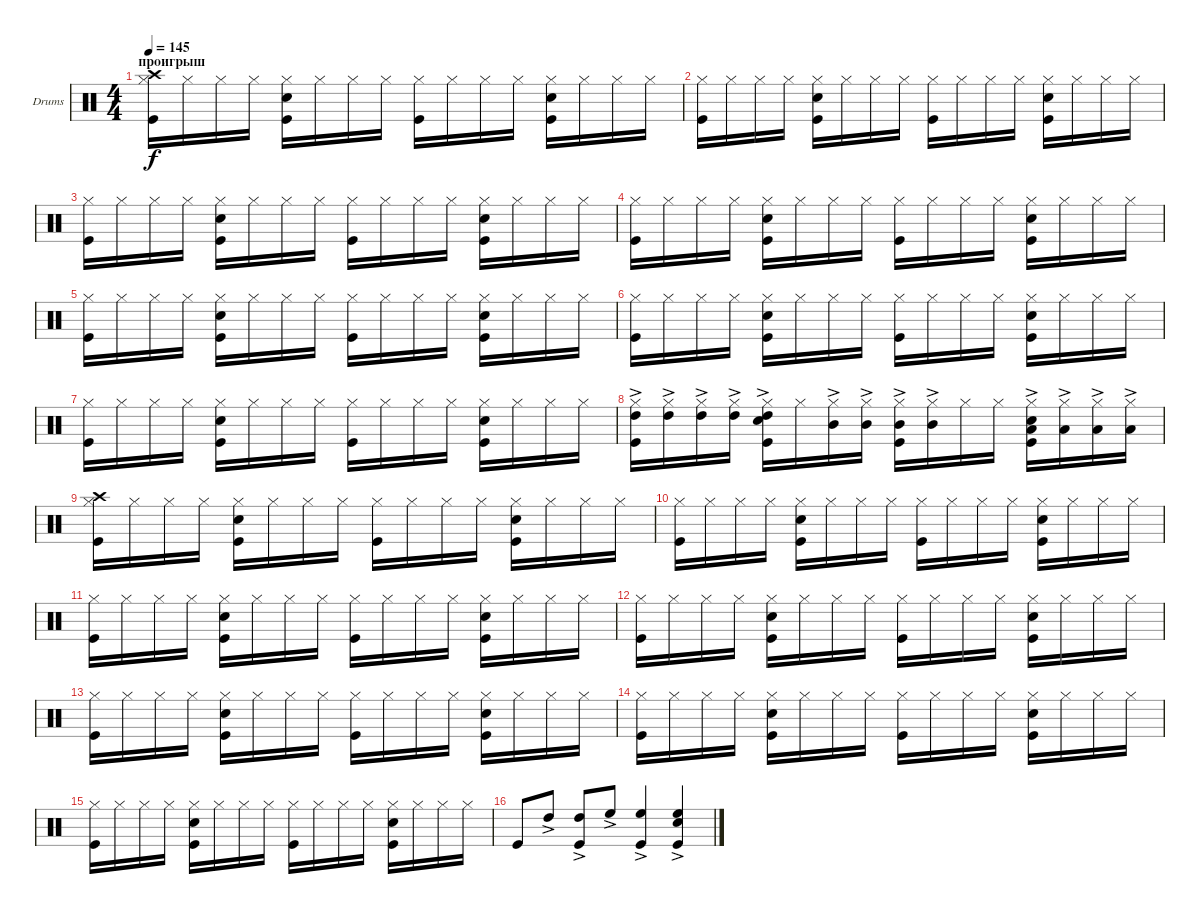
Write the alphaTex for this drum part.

\defaultSystemsLayout 4
\bracketExtendMode groupsimilarinstruments
\firstSystemTrackNameOrientation horizontal
\otherSystemsTrackNameOrientation horizontal
\track ("Drumkit" "Drums") {instrument percussion}
\staff {score}
\articulation defaults
\ts (4 4)
\section ("" "проигрыш")
\tempo 145
\clef neutral
\ks c
("Hi-Hat (closed)" "Kick (hit)" "Crash high (hit)").16{dy f} "Hi-Hat (closed)".16 "Hi-Hat (closed)".16 "Hi-Hat (closed)".16 ("Hi-Hat (closed)" "Kick (hit)" "Snare (hit) 2").16 "Hi-Hat (closed)".16 "Hi-Hat (closed)".16 "Hi-Hat (closed)".16 ("Hi-Hat (closed)" "Kick (hit)").16 "Hi-Hat (closed)".16 "Hi-Hat (closed)".16 "Hi-Hat (closed)".16 ("Hi-Hat (closed)" "Kick (hit)" "Snare (hit) 2").16 "Hi-Hat (closed)".16 "Hi-Hat (closed)".16 "Hi-Hat (closed)".16 |
("Hi-Hat (closed)" "Kick (hit)").16 "Hi-Hat (closed)".16 "Hi-Hat (closed)".16 "Hi-Hat (closed)".16 ("Hi-Hat (closed)" "Kick (hit)" "Snare (hit) 2").16 "Hi-Hat (closed)".16 "Hi-Hat (closed)".16 "Hi-Hat (closed)".16 ("Hi-Hat (closed)" "Kick (hit)").16 "Hi-Hat (closed)".16 "Hi-Hat (closed)".16 "Hi-Hat (closed)".16 ("Hi-Hat (closed)" "Kick (hit)" "Snare (hit) 2").16 "Hi-Hat (closed)".16 "Hi-Hat (closed)".16 "Hi-Hat (closed)".16 |
("Hi-Hat (closed)" "Kick (hit)").16 "Hi-Hat (closed)".16 "Hi-Hat (closed)".16 "Hi-Hat (closed)".16 ("Hi-Hat (closed)" "Kick (hit)" "Snare (hit) 2").16 "Hi-Hat (closed)".16 "Hi-Hat (closed)".16 "Hi-Hat (closed)".16 ("Hi-Hat (closed)" "Kick (hit)").16 "Hi-Hat (closed)".16 "Hi-Hat (closed)".16 "Hi-Hat (closed)".16 ("Hi-Hat (closed)" "Kick (hit)" "Snare (hit) 2").16 "Hi-Hat (closed)".16 "Hi-Hat (closed)".16 "Hi-Hat (closed)".16 |
("Hi-Hat (closed)" "Kick (hit)").16 "Hi-Hat (closed)".16 "Hi-Hat (closed)".16 "Hi-Hat (closed)".16 ("Hi-Hat (closed)" "Kick (hit)" "Snare (hit) 2").16 "Hi-Hat (closed)".16 "Hi-Hat (closed)".16 "Hi-Hat (closed)".16 ("Hi-Hat (closed)" "Kick (hit)").16 "Hi-Hat (closed)".16 "Hi-Hat (closed)".16 "Hi-Hat (closed)".16 ("Hi-Hat (closed)" "Kick (hit)" "Snare (hit) 2").16 "Hi-Hat (closed)".16 "Hi-Hat (closed)".16 "Hi-Hat (closed)".16 |
("Hi-Hat (closed)" "Kick (hit)").16 "Hi-Hat (closed)".16 "Hi-Hat (closed)".16 "Hi-Hat (closed)".16 ("Hi-Hat (closed)" "Kick (hit)" "Snare (hit) 2").16 "Hi-Hat (closed)".16 "Hi-Hat (closed)".16 "Hi-Hat (closed)".16 ("Hi-Hat (closed)" "Kick (hit)").16 "Hi-Hat (closed)".16 "Hi-Hat (closed)".16 "Hi-Hat (closed)".16 ("Hi-Hat (closed)" "Kick (hit)" "Snare (hit) 2").16 "Hi-Hat (closed)".16 "Hi-Hat (closed)".16 "Hi-Hat (closed)".16 |
("Hi-Hat (closed)" "Kick (hit)").16 "Hi-Hat (closed)".16 "Hi-Hat (closed)".16 "Hi-Hat (closed)".16 ("Hi-Hat (closed)" "Kick (hit)" "Snare (hit) 2").16 "Hi-Hat (closed)".16 "Hi-Hat (closed)".16 "Hi-Hat (closed)".16 ("Hi-Hat (closed)" "Kick (hit)").16 "Hi-Hat (closed)".16 "Hi-Hat (closed)".16 "Hi-Hat (closed)".16 ("Hi-Hat (closed)" "Kick (hit)" "Snare (hit) 2").16 "Hi-Hat (closed)".16 "Hi-Hat (closed)".16 "Hi-Hat (closed)".16 |
("Hi-Hat (closed)" "Kick (hit)").16 "Hi-Hat (closed)".16 "Hi-Hat (closed)".16 "Hi-Hat (closed)".16 ("Hi-Hat (closed)" "Kick (hit)" "Snare (hit) 2").16 "Hi-Hat (closed)".16 "Hi-Hat (closed)".16 "Hi-Hat (closed)".16 ("Hi-Hat (closed)" "Kick (hit)").16 "Hi-Hat (closed)".16 "Hi-Hat (closed)".16 "Hi-Hat (closed)".16 ("Hi-Hat (closed)" "Kick (hit)" "Snare (hit) 2").16 "Hi-Hat (closed)".16 "Hi-Hat (closed)".16 "Hi-Hat (closed)".16 |
("Hi-Hat (closed)" "Kick (hit)" "High Tom (hit)"{ac}).16 ("Hi-Hat (closed)" "High Tom (hit)"{ac}).16 ("Hi-Hat (closed)" "High Tom (hit)"{ac}).16 ("Hi-Hat (closed)" "High Tom (hit)"{ac}).16 ("Hi-Hat (closed)" "Kick (hit)" "Snare (hit) 2" "High Tom (hit)"{ac}).16 "Hi-Hat (closed)".16 ("Hi-Hat (closed)" "Mid Tom (hit)"{ac}).16 ("Hi-Hat (closed)" "Mid Tom (hit)"{ac}).16 ("Hi-Hat (closed)" "Kick (hit)" "Mid Tom (hit)"{ac}).16 ("Hi-Hat (closed)" "Mid Tom (hit)"{ac}).16 "Hi-Hat (closed)".16 "Hi-Hat (closed)".16 ("Hi-Hat (closed)" "Kick (hit)" "Snare (hit) 2" "Low Tom (hit)"{ac}).16 ("Hi-Hat (closed)" "Low Tom (hit)"{ac}).16 ("Hi-Hat (closed)" "Low Tom (hit)"{ac}).16 ("Hi-Hat (closed)" "Low Tom (hit)"{ac}).16 |
("Hi-Hat (closed)" "Kick (hit)" "Crash high (hit)").16 "Hi-Hat (closed)".16 "Hi-Hat (closed)".16 "Hi-Hat (closed)".16 ("Hi-Hat (closed)" "Kick (hit)" "Snare (hit) 2").16 "Hi-Hat (closed)".16 "Hi-Hat (closed)".16 "Hi-Hat (closed)".16 ("Hi-Hat (closed)" "Kick (hit)").16 "Hi-Hat (closed)".16 "Hi-Hat (closed)".16 "Hi-Hat (closed)".16 ("Hi-Hat (closed)" "Kick (hit)" "Snare (hit) 2").16 "Hi-Hat (closed)".16 "Hi-Hat (closed)".16 "Hi-Hat (closed)".16 |
("Hi-Hat (closed)" "Kick (hit)").16 "Hi-Hat (closed)".16 "Hi-Hat (closed)".16 "Hi-Hat (closed)".16 ("Hi-Hat (closed)" "Kick (hit)" "Snare (hit) 2").16 "Hi-Hat (closed)".16 "Hi-Hat (closed)".16 "Hi-Hat (closed)".16 ("Hi-Hat (closed)" "Kick (hit)").16 "Hi-Hat (closed)".16 "Hi-Hat (closed)".16 "Hi-Hat (closed)".16 ("Hi-Hat (closed)" "Kick (hit)" "Snare (hit) 2").16 "Hi-Hat (closed)".16 "Hi-Hat (closed)".16 "Hi-Hat (closed)".16 |
("Hi-Hat (closed)" "Kick (hit)").16 "Hi-Hat (closed)".16 "Hi-Hat (closed)".16 "Hi-Hat (closed)".16 ("Hi-Hat (closed)" "Kick (hit)" "Snare (hit) 2").16 "Hi-Hat (closed)".16 "Hi-Hat (closed)".16 "Hi-Hat (closed)".16 ("Hi-Hat (closed)" "Kick (hit)").16 "Hi-Hat (closed)".16 "Hi-Hat (closed)".16 "Hi-Hat (closed)".16 ("Hi-Hat (closed)" "Kick (hit)" "Snare (hit) 2").16 "Hi-Hat (closed)".16 "Hi-Hat (closed)".16 "Hi-Hat (closed)".16 |
("Hi-Hat (closed)" "Kick (hit)").16 "Hi-Hat (closed)".16 "Hi-Hat (closed)".16 "Hi-Hat (closed)".16 ("Hi-Hat (closed)" "Kick (hit)" "Snare (hit) 2").16 "Hi-Hat (closed)".16 "Hi-Hat (closed)".16 "Hi-Hat (closed)".16 ("Hi-Hat (closed)" "Kick (hit)").16 "Hi-Hat (closed)".16 "Hi-Hat (closed)".16 "Hi-Hat (closed)".16 ("Hi-Hat (closed)" "Kick (hit)" "Snare (hit) 2").16 "Hi-Hat (closed)".16 "Hi-Hat (closed)".16 "Hi-Hat (closed)".16 |
("Hi-Hat (closed)" "Kick (hit)").16 "Hi-Hat (closed)".16 "Hi-Hat (closed)".16 "Hi-Hat (closed)".16 ("Hi-Hat (closed)" "Kick (hit)" "Snare (hit) 2").16 "Hi-Hat (closed)".16 "Hi-Hat (closed)".16 "Hi-Hat (closed)".16 ("Hi-Hat (closed)" "Kick (hit)").16 "Hi-Hat (closed)".16 "Hi-Hat (closed)".16 "Hi-Hat (closed)".16 ("Hi-Hat (closed)" "Kick (hit)" "Snare (hit) 2").16 "Hi-Hat (closed)".16 "Hi-Hat (closed)".16 "Hi-Hat (closed)".16 |
("Hi-Hat (closed)" "Kick (hit)").16 "Hi-Hat (closed)".16 "Hi-Hat (closed)".16 "Hi-Hat (closed)".16 ("Hi-Hat (closed)" "Kick (hit)" "Snare (hit) 2").16 "Hi-Hat (closed)".16 "Hi-Hat (closed)".16 "Hi-Hat (closed)".16 ("Hi-Hat (closed)" "Kick (hit)").16 "Hi-Hat (closed)".16 "Hi-Hat (closed)".16 "Hi-Hat (closed)".16 ("Hi-Hat (closed)" "Kick (hit)" "Snare (hit) 2").16 "Hi-Hat (closed)".16 "Hi-Hat (closed)".16 "Hi-Hat (closed)".16 |
("Hi-Hat (closed)" "Kick (hit)").16 "Hi-Hat (closed)".16 "Hi-Hat (closed)".16 "Hi-Hat (closed)".16 ("Hi-Hat (closed)" "Kick (hit)" "Snare (hit) 2").16 "Hi-Hat (closed)".16 "Hi-Hat (closed)".16 "Hi-Hat (closed)".16 ("Hi-Hat (closed)" "Kick (hit)").16 "Hi-Hat (closed)".16 "Hi-Hat (closed)".16 "Hi-Hat (closed)".16 ("Hi-Hat (closed)" "Kick (hit)" "Snare (hit) 2").16 "Hi-Hat (closed)".16 "Hi-Hat (closed)".16 "Hi-Hat (closed)".16 |
"Kick (hit)".8 "High Tom (hit)"{ac}.8 ("High Tom (hit)"{ac} "Kick (hit)").8 "High Floor Tom (hit)"{ac}.8 ("High Floor Tom (hit)"{ac} "Kick (hit)").4 ("High Floor Tom (hit)"{ac} "Kick (hit)" "Snare (hit) 2").4
